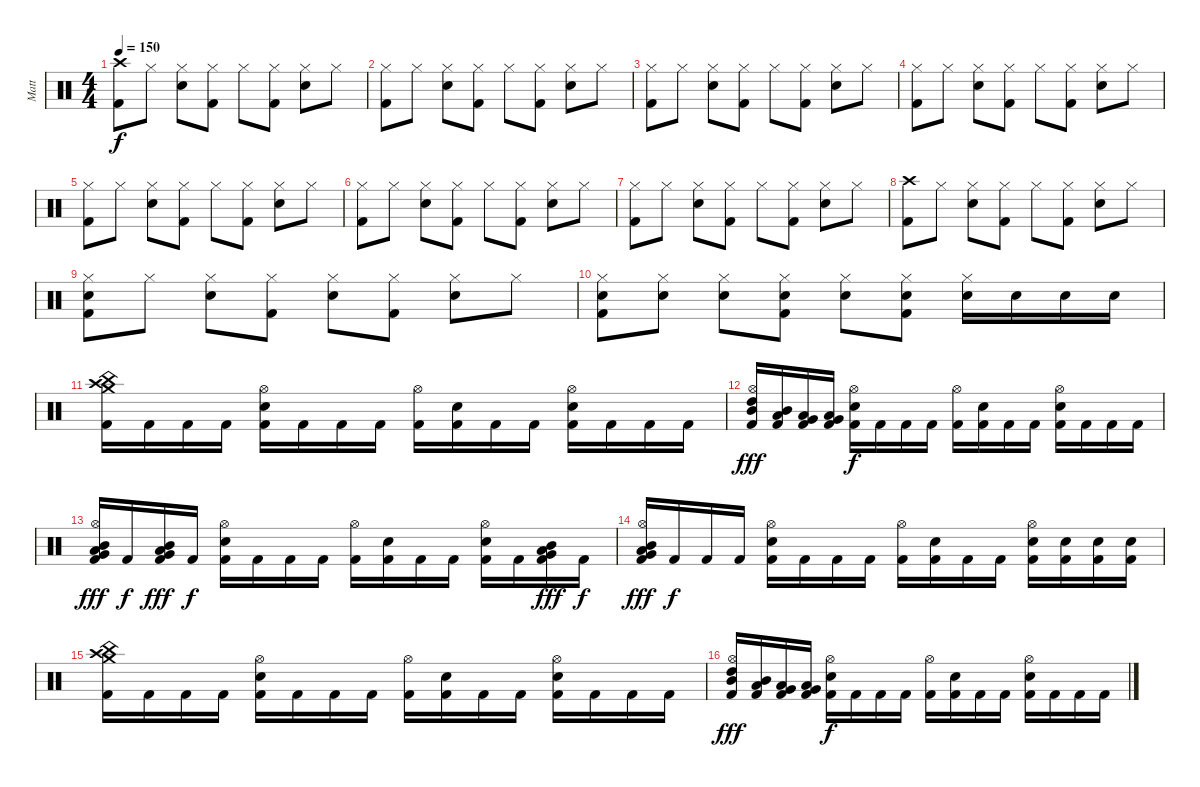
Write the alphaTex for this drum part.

\track ("Matt" "Matt") {instrument percussion}
\staff {score}
\articulation defaults
\ts (4 4)
\tempo 150
\clef neutral
\ks c
("Crash high (hit)" "Kick (hit) 2").8{dy f} "Hi-Hat (closed)".8 ("Hi-Hat (closed)" "Snare (hit) 2").8 ("Hi-Hat (closed)" "Kick (hit) 2").8 "Hi-Hat (closed)".8 ("Hi-Hat (closed)" "Kick (hit) 2").8 ("Hi-Hat (closed)" "Snare (hit) 2").8 "Hi-Hat (closed)".8 |
("Hi-Hat (closed)" "Kick (hit) 2").8 "Hi-Hat (closed)".8 ("Hi-Hat (closed)" "Snare (hit) 2").8 ("Hi-Hat (closed)" "Kick (hit) 2").8 "Hi-Hat (closed)".8 ("Hi-Hat (closed)" "Kick (hit) 2").8 ("Hi-Hat (closed)" "Snare (hit) 2").8 "Hi-Hat (closed)".8 |
("Hi-Hat (closed)" "Kick (hit) 2").8 "Hi-Hat (closed)".8 ("Hi-Hat (closed)" "Snare (hit) 2").8 ("Hi-Hat (closed)" "Kick (hit) 2").8 "Hi-Hat (closed)".8 ("Hi-Hat (closed)" "Kick (hit) 2").8 ("Hi-Hat (closed)" "Snare (hit) 2").8 "Hi-Hat (closed)".8 |
("Hi-Hat (closed)" "Kick (hit) 2").8 "Hi-Hat (closed)".8 ("Hi-Hat (closed)" "Snare (hit) 2").8 ("Hi-Hat (closed)" "Kick (hit) 2").8 "Hi-Hat (closed)".8 ("Hi-Hat (closed)" "Kick (hit) 2").8 ("Hi-Hat (closed)" "Snare (hit) 2").8 "Hi-Hat (closed)".8 |
("Hi-Hat (closed)" "Kick (hit) 2").8 "Hi-Hat (closed)".8 ("Hi-Hat (closed)" "Snare (hit) 2").8 ("Hi-Hat (closed)" "Kick (hit) 2").8 "Hi-Hat (closed)".8 ("Hi-Hat (closed)" "Kick (hit) 2").8 ("Hi-Hat (closed)" "Snare (hit) 2").8 "Hi-Hat (closed)".8 |
("Hi-Hat (closed)" "Kick (hit) 2").8 "Hi-Hat (closed)".8 ("Hi-Hat (closed)" "Snare (hit) 2").8 ("Hi-Hat (closed)" "Kick (hit) 2").8 "Hi-Hat (closed)".8 ("Hi-Hat (closed)" "Kick (hit) 2").8 ("Hi-Hat (closed)" "Snare (hit) 2").8 "Hi-Hat (closed)".8 |
("Hi-Hat (closed)" "Kick (hit) 2").8 "Hi-Hat (closed)".8 ("Hi-Hat (closed)" "Snare (hit) 2").8 ("Hi-Hat (closed)" "Kick (hit) 2").8 "Hi-Hat (closed)".8 ("Hi-Hat (closed)" "Kick (hit) 2").8 ("Hi-Hat (closed)" "Snare (hit) 2").8 "Hi-Hat (closed)".8 |
("Crash high (hit)" "Kick (hit) 2").8 "Hi-Hat (closed)".8 ("Hi-Hat (closed)" "Snare (hit) 2").8 ("Hi-Hat (closed)" "Kick (hit) 2").8 "Hi-Hat (closed)".8 ("Hi-Hat (closed)" "Kick (hit) 2").8 ("Hi-Hat (closed)" "Snare (hit) 2").8 "Hi-Hat (closed)".8 |
("Hi-Hat (closed)" "Snare (hit) 2" "Kick (hit) 2").8 "Hi-Hat (closed)".8 ("Hi-Hat (closed)" "Snare (hit) 2").8 ("Hi-Hat (closed)" "Kick (hit) 2").8 ("Hi-Hat (closed)" "Snare (hit) 2").8 ("Hi-Hat (closed)" "Kick (hit) 2").8 ("Hi-Hat (closed)" "Snare (hit) 2").8 "Hi-Hat (closed)".8 |
("Hi-Hat (closed)" "Snare (hit) 2" "Kick (hit) 2").8 ("Hi-Hat (closed)" "Snare (hit) 2").8 ("Hi-Hat (closed)" "Snare (hit) 2").8 ("Hi-Hat (closed)" "Snare (hit) 2" "Kick (hit) 2").8 ("Hi-Hat (closed)" "Snare (hit) 2").8 ("Hi-Hat (closed)" "Snare (hit) 2" "Kick (hit) 2").8 ("Hi-Hat (closed)" "Electric Snare (hit)").16 "Electric Snare (hit)".16 "Electric Snare (hit)".16 "Electric Snare (hit)".16 |
("Crash medium (hit)" "Crash high (hit)" "China (hit)" "Kick (hit) 2").16 "Kick (hit) 2".16 "Kick (hit) 2".16 "Kick (hit) 2".16 ("Hi-Hat (open)" "Snare (hit) 2" "Kick (hit) 2").16 "Kick (hit) 2".16 "Kick (hit) 2".16 "Kick (hit) 2".16 ("Hi-Hat (open)" "Kick (hit) 2").16 ("Snare (hit) 2" "Kick (hit) 2").16 "Kick (hit) 2".16 "Kick (hit) 2".16 ("Hi-Hat (open)" "Snare (hit) 2" "Kick (hit) 2").16 "Kick (hit) 2".16 "Kick (hit) 2".16 "Kick (hit) 2".16 |
("Hi-Hat (open)" "Mid Tom (hit)" "High Tom (hit)" "Kick (hit) 2").16{dy fff} ("Low Tom (hit)" "Mid Tom (hit)" "Kick (hit) 2").16 ("Very Low Tom (hit)" "Low Tom (hit)" "Kick (hit) 2").16 ("Low Floor Tom (hit)" "Very Low Tom (hit)" "Kick (hit) 2").16 ("Hi-Hat (open)" "Snare (hit) 2" "Kick (hit) 2").16{dy f} "Kick (hit) 2".16 "Kick (hit) 2".16 "Kick (hit) 2".16 ("Hi-Hat (open)" "Kick (hit) 2").16 ("Snare (hit) 2" "Kick (hit) 2").16 "Kick (hit) 2".16 "Kick (hit) 2".16 ("Hi-Hat (open)" "Snare (hit) 2" "Kick (hit) 2").16 "Kick (hit) 2".16 "Kick (hit) 2".16 "Kick (hit) 2".16 |
("Hi-Hat (open)" "Mid Tom (hit)" "Low Tom (hit)" "Very Low Tom (hit)" "Kick (hit) 2").16{dy fff} "Kick (hit) 2".16{dy f} ("Mid Tom (hit)" "Low Tom (hit)" "Very Low Tom (hit)" "Kick (hit) 2").16{dy fff} "Kick (hit) 2".16{dy f} ("Hi-Hat (open)" "Snare (hit) 2" "Kick (hit) 2").16 "Kick (hit) 2".16 "Kick (hit) 2".16 "Kick (hit) 2".16 ("Hi-Hat (open)" "Kick (hit) 2").16 ("Snare (hit) 2" "Kick (hit) 2").16 "Kick (hit) 2".16 "Kick (hit) 2".16 ("Hi-Hat (open)" "Snare (hit) 2" "Kick (hit) 2").16 "Kick (hit) 2".16 ("Mid Tom (hit)" "Low Tom (hit)" "Very Low Tom (hit)" "Kick (hit) 2").16{dy fff} "Kick (hit) 2".16{dy f} |
("Hi-Hat (open)" "Mid Tom (hit)" "Very Low Tom (hit)" "Low Tom (hit)" "Kick (hit) 2").16{dy fff} "Kick (hit) 2".16{dy f} "Kick (hit) 2".16 "Kick (hit) 2".16 ("Hi-Hat (open)" "Snare (hit) 2" "Kick (hit) 2").16 "Kick (hit) 2".16 "Kick (hit) 2".16 "Kick (hit) 2".16 ("Hi-Hat (open)" "Kick (hit) 2").16 ("Snare (hit) 2" "Kick (hit) 2").16 "Kick (hit) 2".16 "Kick (hit) 2".16 ("Hi-Hat (open)" "Electric Snare (hit)" "Kick (hit) 2").16 ("Electric Snare (hit)" "Kick (hit) 2").16 ("Electric Snare (hit)" "Kick (hit) 2").16 ("Electric Snare (hit)" "Kick (hit) 2").16 |
("Crash medium (hit)" "Crash high (hit)" "China (hit)" "Kick (hit) 2").16 "Kick (hit) 2".16 "Kick (hit) 2".16 "Kick (hit) 2".16 ("Hi-Hat (open)" "Snare (hit) 2" "Kick (hit) 2").16 "Kick (hit) 2".16 "Kick (hit) 2".16 "Kick (hit) 2".16 ("Hi-Hat (open)" "Kick (hit) 2").16 ("Snare (hit) 2" "Kick (hit) 2").16 "Kick (hit) 2".16 "Kick (hit) 2".16 ("Hi-Hat (open)" "Snare (hit) 2" "Kick (hit) 2").16 "Kick (hit) 2".16 "Kick (hit) 2".16 "Kick (hit) 2".16 |
("Hi-Hat (open)" "Mid Tom (hit)" "High Tom (hit)" "Kick (hit) 2").16{dy fff} ("Low Tom (hit)" "Mid Tom (hit)" "Kick (hit) 2").16 ("Very Low Tom (hit)" "Low Tom (hit)" "Kick (hit) 2").16 ("Low Floor Tom (hit)" "Very Low Tom (hit)" "Kick (hit) 2").16 ("Hi-Hat (open)" "Snare (hit) 2" "Kick (hit) 2").16{dy f} "Kick (hit) 2".16 "Kick (hit) 2".16 "Kick (hit) 2".16 ("Hi-Hat (open)" "Kick (hit) 2").16 ("Snare (hit) 2" "Kick (hit) 2").16 "Kick (hit) 2".16 "Kick (hit) 2".16 ("Hi-Hat (open)" "Snare (hit) 2" "Kick (hit) 2").16 "Kick (hit) 2".16 "Kick (hit) 2".16 "Kick (hit) 2".16
